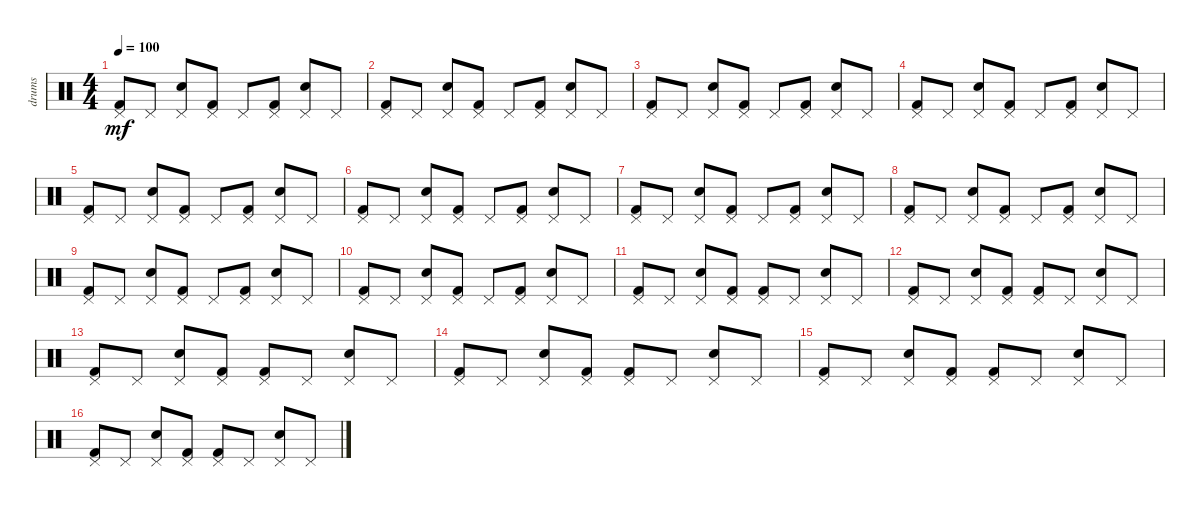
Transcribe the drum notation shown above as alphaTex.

\track ("drums" "drums") {instrument percussion}
\staff {score}
\articulation defaults
\ts (4 4)
\tempo 100
\clef neutral
\ks c
("Kick (hit) 2" "Pedal Hi-Hat (hit)").8{dy mf} "Pedal Hi-Hat (hit)".8 ("Snare (hit) 2" "Pedal Hi-Hat (hit)").8 ("Kick (hit) 2" "Pedal Hi-Hat (hit)").8 "Pedal Hi-Hat (hit)".8 ("Kick (hit) 2" "Pedal Hi-Hat (hit)").8 ("Snare (hit) 2" "Pedal Hi-Hat (hit)").8 "Pedal Hi-Hat (hit)".8 |
("Kick (hit) 2" "Pedal Hi-Hat (hit)").8 "Pedal Hi-Hat (hit)".8 ("Snare (hit) 2" "Pedal Hi-Hat (hit)").8 ("Kick (hit) 2" "Pedal Hi-Hat (hit)").8 "Pedal Hi-Hat (hit)".8 ("Kick (hit) 2" "Pedal Hi-Hat (hit)").8 ("Snare (hit) 2" "Pedal Hi-Hat (hit)").8 "Pedal Hi-Hat (hit)".8 |
("Kick (hit) 2" "Pedal Hi-Hat (hit)").8 "Pedal Hi-Hat (hit)".8 ("Snare (hit) 2" "Pedal Hi-Hat (hit)").8 ("Kick (hit) 2" "Pedal Hi-Hat (hit)").8 "Pedal Hi-Hat (hit)".8 ("Kick (hit) 2" "Pedal Hi-Hat (hit)").8 ("Snare (hit) 2" "Pedal Hi-Hat (hit)").8 "Pedal Hi-Hat (hit)".8 |
("Kick (hit) 2" "Pedal Hi-Hat (hit)").8 "Pedal Hi-Hat (hit)".8 ("Snare (hit) 2" "Pedal Hi-Hat (hit)").8 ("Kick (hit) 2" "Pedal Hi-Hat (hit)").8 "Pedal Hi-Hat (hit)".8 ("Kick (hit) 2" "Pedal Hi-Hat (hit)").8 ("Snare (hit) 2" "Pedal Hi-Hat (hit)").8 "Pedal Hi-Hat (hit)".8 |
("Kick (hit) 2" "Pedal Hi-Hat (hit)").8 "Pedal Hi-Hat (hit)".8 ("Snare (hit) 2" "Pedal Hi-Hat (hit)").8 ("Kick (hit) 2" "Pedal Hi-Hat (hit)").8 "Pedal Hi-Hat (hit)".8 ("Kick (hit) 2" "Pedal Hi-Hat (hit)").8 ("Snare (hit) 2" "Pedal Hi-Hat (hit)").8 "Pedal Hi-Hat (hit)".8 |
("Kick (hit) 2" "Pedal Hi-Hat (hit)").8 "Pedal Hi-Hat (hit)".8 ("Snare (hit) 2" "Pedal Hi-Hat (hit)").8 ("Kick (hit) 2" "Pedal Hi-Hat (hit)").8 "Pedal Hi-Hat (hit)".8 ("Kick (hit) 2" "Pedal Hi-Hat (hit)").8 ("Snare (hit) 2" "Pedal Hi-Hat (hit)").8 "Pedal Hi-Hat (hit)".8 |
("Kick (hit) 2" "Pedal Hi-Hat (hit)").8 "Pedal Hi-Hat (hit)".8 ("Snare (hit) 2" "Pedal Hi-Hat (hit)").8 ("Kick (hit) 2" "Pedal Hi-Hat (hit)").8 "Pedal Hi-Hat (hit)".8 ("Kick (hit) 2" "Pedal Hi-Hat (hit)").8 ("Snare (hit) 2" "Pedal Hi-Hat (hit)").8 "Pedal Hi-Hat (hit)".8 |
("Kick (hit) 2" "Pedal Hi-Hat (hit)").8 "Pedal Hi-Hat (hit)".8 ("Snare (hit) 2" "Pedal Hi-Hat (hit)").8 ("Kick (hit) 2" "Pedal Hi-Hat (hit)").8 "Pedal Hi-Hat (hit)".8 ("Kick (hit) 2" "Pedal Hi-Hat (hit)").8 ("Snare (hit) 2" "Pedal Hi-Hat (hit)").8 "Pedal Hi-Hat (hit)".8 |
("Kick (hit) 2" "Pedal Hi-Hat (hit)").8 "Pedal Hi-Hat (hit)".8 ("Snare (hit) 2" "Pedal Hi-Hat (hit)").8 ("Kick (hit) 2" "Pedal Hi-Hat (hit)").8 "Pedal Hi-Hat (hit)".8 ("Kick (hit) 2" "Pedal Hi-Hat (hit)").8 ("Snare (hit) 2" "Pedal Hi-Hat (hit)").8 "Pedal Hi-Hat (hit)".8 |
("Kick (hit) 2" "Pedal Hi-Hat (hit)").8 "Pedal Hi-Hat (hit)".8 ("Snare (hit) 2" "Pedal Hi-Hat (hit)").8 ("Kick (hit) 2" "Pedal Hi-Hat (hit)").8 "Pedal Hi-Hat (hit)".8 ("Kick (hit) 2" "Pedal Hi-Hat (hit)").8 ("Snare (hit) 2" "Pedal Hi-Hat (hit)").8 "Pedal Hi-Hat (hit)".8 |
("Kick (hit) 2" "Pedal Hi-Hat (hit)").8 "Pedal Hi-Hat (hit)".8 ("Snare (hit) 2" "Pedal Hi-Hat (hit)").8 ("Kick (hit) 2" "Pedal Hi-Hat (hit)").8 ("Kick (hit) 2" "Pedal Hi-Hat (hit)").8 "Pedal Hi-Hat (hit)".8 ("Snare (hit) 2" "Pedal Hi-Hat (hit)").8 "Pedal Hi-Hat (hit)".8 |
("Kick (hit) 2" "Pedal Hi-Hat (hit)").8 "Pedal Hi-Hat (hit)".8 ("Snare (hit) 2" "Pedal Hi-Hat (hit)").8 ("Kick (hit) 2" "Pedal Hi-Hat (hit)").8 ("Kick (hit) 2" "Pedal Hi-Hat (hit)").8 "Pedal Hi-Hat (hit)".8 ("Snare (hit) 2" "Pedal Hi-Hat (hit)").8 "Pedal Hi-Hat (hit)".8 |
("Kick (hit) 2" "Pedal Hi-Hat (hit)").8 "Pedal Hi-Hat (hit)".8 ("Snare (hit) 2" "Pedal Hi-Hat (hit)").8 ("Kick (hit) 2" "Pedal Hi-Hat (hit)").8 ("Kick (hit) 2" "Pedal Hi-Hat (hit)").8 "Pedal Hi-Hat (hit)".8 ("Snare (hit) 2" "Pedal Hi-Hat (hit)").8 "Pedal Hi-Hat (hit)".8 |
("Kick (hit) 2" "Pedal Hi-Hat (hit)").8 "Pedal Hi-Hat (hit)".8 ("Snare (hit) 2" "Pedal Hi-Hat (hit)").8 ("Kick (hit) 2" "Pedal Hi-Hat (hit)").8 ("Kick (hit) 2" "Pedal Hi-Hat (hit)").8 "Pedal Hi-Hat (hit)".8 ("Snare (hit) 2" "Pedal Hi-Hat (hit)").8 "Pedal Hi-Hat (hit)".8 |
("Kick (hit) 2" "Pedal Hi-Hat (hit)").8 "Pedal Hi-Hat (hit)".8 ("Snare (hit) 2" "Pedal Hi-Hat (hit)").8 ("Kick (hit) 2" "Pedal Hi-Hat (hit)").8 ("Kick (hit) 2" "Pedal Hi-Hat (hit)").8 "Pedal Hi-Hat (hit)".8 ("Snare (hit) 2" "Pedal Hi-Hat (hit)").8 "Pedal Hi-Hat (hit)".8 |
("Kick (hit) 2" "Pedal Hi-Hat (hit)").8 "Pedal Hi-Hat (hit)".8 ("Snare (hit) 2" "Pedal Hi-Hat (hit)").8 ("Kick (hit) 2" "Pedal Hi-Hat (hit)").8 ("Kick (hit) 2" "Pedal Hi-Hat (hit)").8 "Pedal Hi-Hat (hit)".8 ("Snare (hit) 2" "Pedal Hi-Hat (hit)").8 "Pedal Hi-Hat (hit)".8
